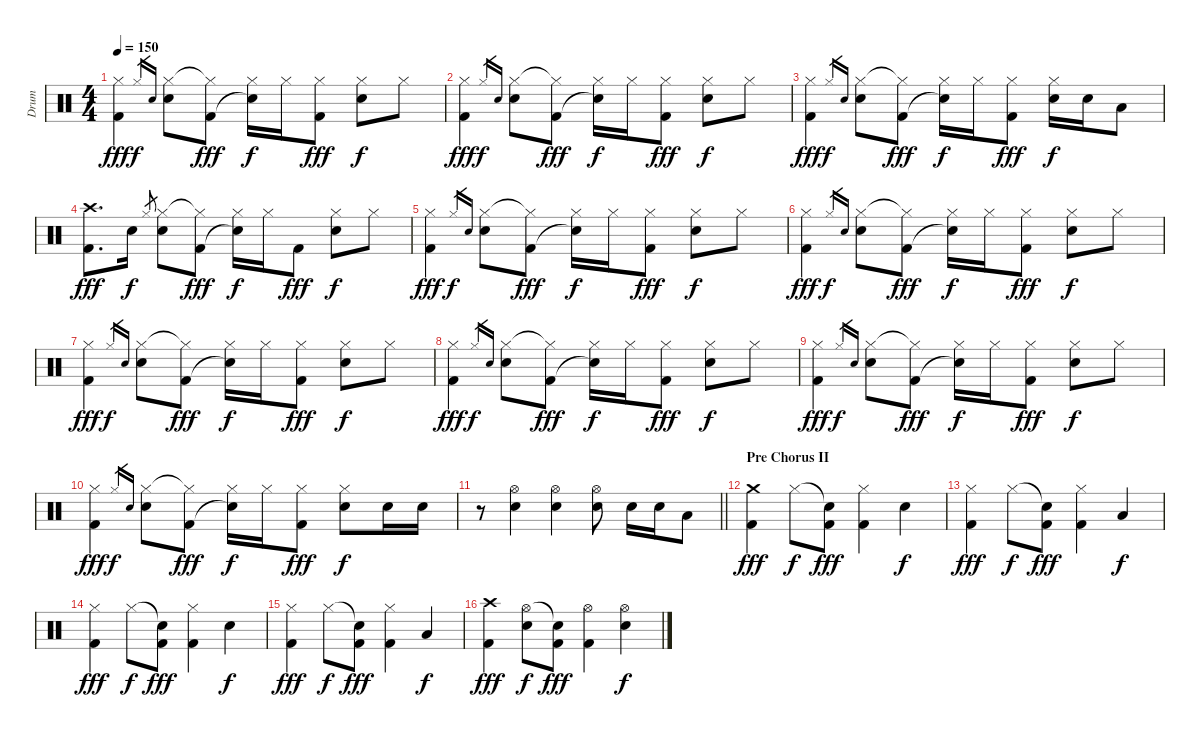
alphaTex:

\track ("Drum" "Drum") {instrument percussion}
\staff {score}
\articulation defaults
\ts (4 4)
\tempo 150
\clef neutral
\ks c
("Hi-Hat (closed)" "Kick (hit) 2").4{dy fff} "Hi-Hat (closed)".16{gr dy f} "Snare (hit) 2".16{gr} ("Hi-Hat (closed)" "Snare (hit) 2").8 ("Hi-Hat (closed)"{t} "Kick (hit) 2").8{dy fff} ("Hi-Hat (closed)" "Snare (hit)"{t}).16{dy f} "Hi-Hat (closed)".16 ("Hi-Hat (closed)" "Kick (hit) 2").8{dy fff} ("Hi-Hat (closed)" "Snare (hit) 2").8{dy f} "Hi-Hat (closed)".8 |
("Hi-Hat (closed)" "Kick (hit) 2").4{dy fff} "Hi-Hat (closed)".16{gr dy f} "Snare (hit) 2".16{gr} ("Hi-Hat (closed)" "Snare (hit) 2").8 ("Hi-Hat (closed)"{t} "Kick (hit) 2").8{dy fff} ("Hi-Hat (closed)" "Snare (hit)"{t}).16{dy f} "Hi-Hat (closed)".16 ("Hi-Hat (closed)" "Kick (hit) 2").8{dy fff} ("Hi-Hat (closed)" "Snare (hit) 2").8{dy f} "Hi-Hat (closed)".8 |
("Hi-Hat (closed)" "Kick (hit) 2").4{dy fff} "Hi-Hat (closed)".16{gr dy f} "Snare (hit) 2".16{gr} ("Hi-Hat (closed)" "Snare (hit) 2").8 ("Hi-Hat (closed)"{t} "Kick (hit) 2").8{dy fff} ("Hi-Hat (closed)" "Snare (hit)"{t}).16{dy f} "Hi-Hat (closed)".16 ("Hi-Hat (closed)" "Kick (hit) 2").8{dy fff} ("Hi-Hat (closed)" "Snare (hit) 2").16{dy f} "Snare (hit) 2".16 "Low Tom (hit)".8 |
("Crash high (hit)" "Kick (hit) 2").8{d dy fff} "Snare (hit) 2".16{dy f} "Hi-Hat (closed)".8{gr} ("Hi-Hat (closed)" "Snare (hit) 2").8 ("Hi-Hat (closed)"{t} "Kick (hit) 2").8{dy fff} ("Hi-Hat (closed)" "Snare (hit)"{t}).16{dy f} "Hi-Hat (closed)".16 "Kick (hit) 2".8{dy fff} ("Hi-Hat (closed)" "Snare (hit) 2").8{dy f} "Hi-Hat (closed)".8 |
("Hi-Hat (closed)" "Kick (hit) 2").4{dy fff} "Hi-Hat (closed)".16{gr dy f} "Snare (hit) 2".16{gr} ("Hi-Hat (closed)" "Snare (hit) 2").8 ("Hi-Hat (closed)"{t} "Kick (hit) 2").8{dy fff} ("Hi-Hat (closed)" "Snare (hit)"{t}).16{dy f} "Hi-Hat (closed)".16 ("Hi-Hat (closed)" "Kick (hit) 2").8{dy fff} ("Hi-Hat (closed)" "Snare (hit) 2").8{dy f} "Hi-Hat (closed)".8 |
("Hi-Hat (closed)" "Kick (hit) 2").4{dy fff} "Hi-Hat (closed)".16{gr dy f} "Snare (hit) 2".16{gr} ("Hi-Hat (closed)" "Snare (hit) 2").8 ("Hi-Hat (closed)"{t} "Kick (hit) 2").8{dy fff} ("Hi-Hat (closed)" "Snare (hit)"{t}).16{dy f} "Hi-Hat (closed)".16 ("Hi-Hat (closed)" "Kick (hit) 2").8{dy fff} ("Hi-Hat (closed)" "Snare (hit) 2").8{dy f} "Hi-Hat (closed)".8 |
("Hi-Hat (closed)" "Kick (hit) 2").4{dy fff} "Hi-Hat (closed)".16{gr dy f} "Snare (hit) 2".16{gr} ("Hi-Hat (closed)" "Snare (hit) 2").8 ("Hi-Hat (closed)"{t} "Kick (hit) 2").8{dy fff} ("Hi-Hat (closed)" "Snare (hit)"{t}).16{dy f} "Hi-Hat (closed)".16 ("Hi-Hat (closed)" "Kick (hit) 2").8{dy fff} ("Hi-Hat (closed)" "Snare (hit) 2").8{dy f} "Hi-Hat (closed)".8 |
("Hi-Hat (closed)" "Kick (hit) 2").4{dy fff} "Hi-Hat (closed)".16{gr dy f} "Snare (hit) 2".16{gr} ("Hi-Hat (closed)" "Snare (hit) 2").8 ("Hi-Hat (closed)"{t} "Kick (hit) 2").8{dy fff} ("Hi-Hat (closed)" "Snare (hit)"{t}).16{dy f} "Hi-Hat (closed)".16 ("Hi-Hat (closed)" "Kick (hit) 2").8{dy fff} ("Hi-Hat (closed)" "Snare (hit) 2").8{dy f} "Hi-Hat (closed)".8 |
("Hi-Hat (closed)" "Kick (hit) 2").4{dy fff} "Hi-Hat (closed)".16{gr dy f} "Snare (hit) 2".16{gr} ("Hi-Hat (closed)" "Snare (hit) 2").8 ("Hi-Hat (closed)"{t} "Kick (hit) 2").8{dy fff} ("Hi-Hat (closed)" "Snare (hit)"{t}).16{dy f} "Hi-Hat (closed)".16 ("Hi-Hat (closed)" "Kick (hit) 2").8{dy fff} ("Hi-Hat (closed)" "Snare (hit) 2").8{dy f} "Hi-Hat (closed)".8 |
("Hi-Hat (closed)" "Kick (hit) 2").4{dy fff} "Hi-Hat (closed)".16{gr dy f} "Snare (hit) 2".16{gr} ("Hi-Hat (closed)" "Snare (hit) 2").8 ("Hi-Hat (closed)"{t} "Kick (hit) 2").8{dy fff} ("Hi-Hat (closed)" "Snare (hit)"{t}).16{dy f} "Hi-Hat (closed)".16 ("Hi-Hat (closed)" "Kick (hit) 2").8{dy fff} ("Hi-Hat (closed)" "Snare (hit) 2").8{dy f} "Snare (hit) 2".16 "Snare (hit) 2".16 |
\barLineRight lightlight
r.8 ("Hi-Hat (open)" "Snare (hit) 2").4 ("Hi-Hat (open)" "Snare (hit) 2").4 ("Hi-Hat (open)" "Snare (hit) 2").8 "Snare (hit) 2".16 "Snare (hit) 2".16 "Low Tom (hit)".8 |
\section ("" "Pre Chorus II")
("Crash medium (hit)" "Kick (hit) 2").4{dy fff} "Hi-Hat (closed)".8{dy f} ("Snare (hit)"{t} "Kick (hit) 2").8{dy fff} ("Hi-Hat (closed)" "Kick (hit) 2").4 "Snare (hit) 2".4{dy f} |
("Hi-Hat (closed)" "Kick (hit) 2").4{dy fff} "Hi-Hat (closed)".8{dy f} ("Snare (hit)"{t} "Kick (hit) 2").8{dy fff} ("Hi-Hat (closed)" "Kick (hit) 2").4 "Low Floor Tom (hit)".4{dy f} |
("Hi-Hat (closed)" "Kick (hit) 2").4{dy fff} "Hi-Hat (closed)".8{dy f} ("Snare (hit)"{t} "Kick (hit) 2").8{dy fff} ("Hi-Hat (closed)" "Kick (hit) 2").4 "Snare (hit) 2".4{dy f} |
("Hi-Hat (closed)" "Kick (hit) 2").4{dy fff} "Hi-Hat (closed)".8{dy f} ("Snare (hit)"{t} "Kick (hit) 2").8{dy fff} ("Hi-Hat (closed)" "Kick (hit) 2").4 "Low Floor Tom (hit)".4{dy f} |
("Crash high (hit)" "Kick (hit) 2").4{dy fff} ("Hi-Hat (open)" "Snare (hit) 2").8{dy f} ("Snare (hit)"{t} "Kick (hit) 2").8{dy fff} ("Hi-Hat (open)" "Kick (hit) 2").4 ("Hi-Hat (open)" "Snare (hit) 2").4{dy f}
